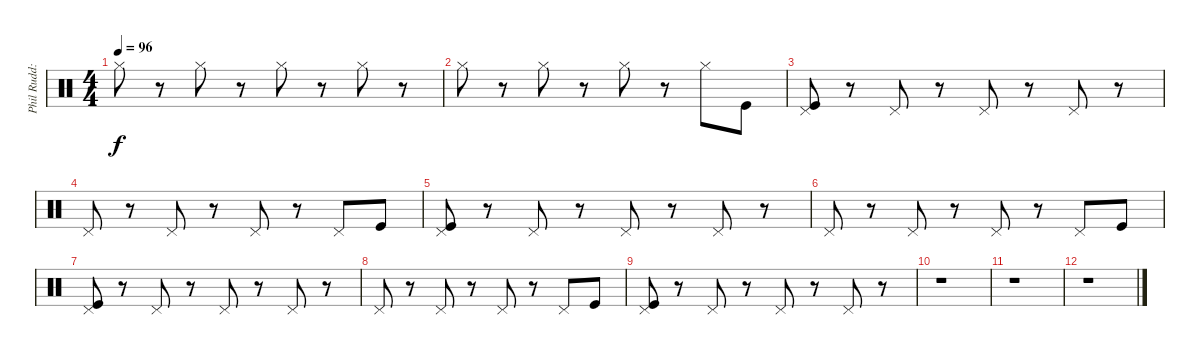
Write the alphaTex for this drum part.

\track ("Phil Rudd: Drums" "Phil Rudd:") {instrument percussion}
\staff {score}
\articulation defaults
\ts (4 4)
\tempo 96
\clef neutral
\ks c "Hi-Hat (closed)".8{dy f}
r.8 "Hi-Hat (closed)".8 r.8 "Hi-Hat (closed)".8 r.8 "Hi-Hat (closed)".8 r.8 |
"Hi-Hat (closed)".8 r.8 "Hi-Hat (closed)".8 r.8 "Hi-Hat (closed)".8 r.8 "Hi-Hat (closed)".8 "Kick (hit)".8 |
("Pedal Hi-Hat (hit)" "Kick (hit)").8 r.8 "Pedal Hi-Hat (hit)".8 r.8 "Pedal Hi-Hat (hit)".8 r.8 "Pedal Hi-Hat (hit)".8 r.8 |
"Pedal Hi-Hat (hit)".8 r.8 "Pedal Hi-Hat (hit)".8 r.8 "Pedal Hi-Hat (hit)".8 r.8 "Pedal Hi-Hat (hit)".8 "Kick (hit)".8 |
("Pedal Hi-Hat (hit)" "Kick (hit)").8 r.8 "Pedal Hi-Hat (hit)".8 r.8 "Pedal Hi-Hat (hit)".8 r.8 "Pedal Hi-Hat (hit)".8 r.8 |
"Pedal Hi-Hat (hit)".8 r.8 "Pedal Hi-Hat (hit)".8 r.8 "Pedal Hi-Hat (hit)".8 r.8 "Pedal Hi-Hat (hit)".8 "Kick (hit)".8 |
("Pedal Hi-Hat (hit)" "Kick (hit)").8 r.8 "Pedal Hi-Hat (hit)".8 r.8 "Pedal Hi-Hat (hit)".8 r.8 "Pedal Hi-Hat (hit)".8 r.8 |
"Pedal Hi-Hat (hit)".8 r.8 "Pedal Hi-Hat (hit)".8 r.8 "Pedal Hi-Hat (hit)".8 r.8 "Pedal Hi-Hat (hit)".8 "Kick (hit)".8 |
("Pedal Hi-Hat (hit)" "Kick (hit)").8 r.8 "Pedal Hi-Hat (hit)".8 r.8 "Pedal Hi-Hat (hit)".8 r.8 "Pedal Hi-Hat (hit)".8 r.8 |
r.1 |
r.1 |
r.1
